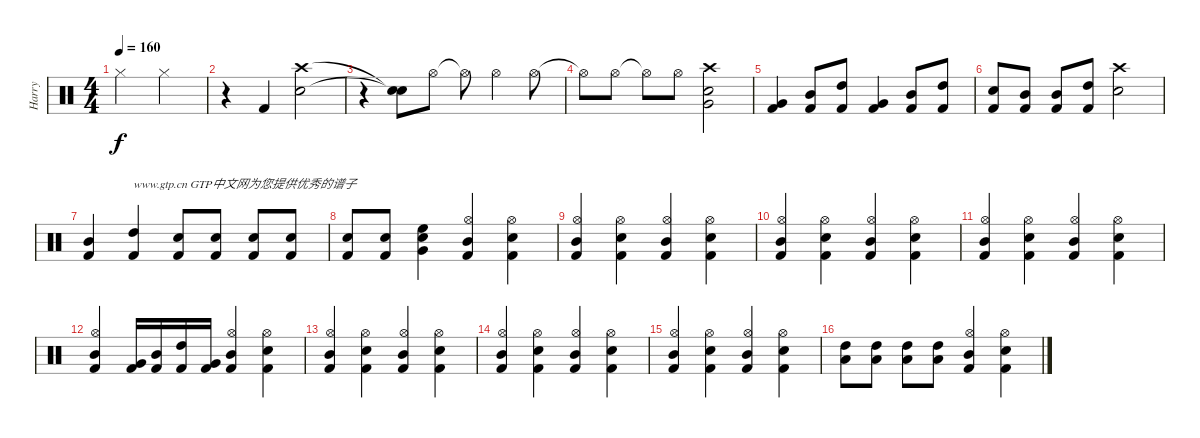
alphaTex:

\track ("Harry" "Harry") {instrument percussion}
\staff {score}
\articulation defaults
\ts (4 4)
\tempo 160
\clef neutral
\ks c "Hi-Hat (closed)".2{dy f} "Hi-Hat (closed)".2
|
r.4 "Kick (hit) 2".4 ("Crash high (hit)" "Snare (hit) 2").2 |
r.4 ("Snare (hit)"{t} "Snare (hit)"{t}).8 "Hi-Hat (open)".8 "Hi-Hat (open)"{t}.8 "Hi-Hat (open)".4 "Hi-Hat (open)".8 |
"Hi-Hat (open)"{t}.8 "Hi-Hat (open)".8 "Hi-Hat (open)"{t}.8 "Hi-Hat (open)".8 ("Very Low Tom (hit)" "Crash high (hit)" "Snare (hit) 2").2 |
("Kick (hit) 2" "Very Low Tom (hit)").4 ("Kick (hit) 2" "Mid Tom (hit)").8 ("Kick (hit) 2" "High Tom (hit)").8 ("Kick (hit) 2" "Very Low Tom (hit)").4 ("Kick (hit) 2" "Mid Tom (hit)").8 ("Kick (hit) 2" "High Tom (hit)").8 |
("Kick (hit) 2" "Snare (hit) 2").8 ("Kick (hit) 2" "Mid Tom (hit)").8 ("Kick (hit) 2" "Mid Tom (hit)").8 ("Kick (hit) 2" "High Tom (hit)").8 ("Crash high (hit)" "Snare (hit) 2").2 |
("Kick (hit) 2" "Mid Tom (hit)").4 ("Kick (hit) 2" "High Tom (hit)").4{txt "www.gtp.cn GTP中文网为您提供优秀的谱子"} ("Snare (hit) 2" "Kick (hit) 2").8 ("Snare (hit) 2" "Kick (hit) 2").8 ("Snare (hit) 2" "Kick (hit) 2").8 ("Snare (hit) 2" "Kick (hit) 2").8 |
("Snare (hit) 2" "Kick (hit) 2").8 ("Snare (hit) 2" "Kick (hit) 2").8 ("High Floor Tom (hit)" "Very Low Tom (hit)" "Snare (hit) 2").4 ("Hi-Hat (open)" "Mid Tom (hit)" "Kick (hit) 2").4 ("Hi-Hat (open)" "Kick (hit) 2" "Snare (hit) 2").4 |
("Hi-Hat (open)" "Mid Tom (hit)" "Kick (hit) 2").4 ("Hi-Hat (open)" "Kick (hit) 2" "Snare (hit) 2").4 ("Hi-Hat (open)" "Mid Tom (hit)" "Kick (hit) 2").4 ("Hi-Hat (open)" "Kick (hit) 2" "Snare (hit) 2").4 |
("Hi-Hat (open)" "Mid Tom (hit)" "Kick (hit) 2").4 ("Hi-Hat (open)" "Kick (hit) 2" "Snare (hit) 2").4 ("Hi-Hat (open)" "Mid Tom (hit)" "Kick (hit) 2").4 ("Hi-Hat (open)" "Kick (hit) 2" "Snare (hit) 2").4 |
("Hi-Hat (open)" "Mid Tom (hit)" "Kick (hit) 2").4 ("Hi-Hat (open)" "Kick (hit) 2" "Snare (hit) 2").4 ("Hi-Hat (open)" "Mid Tom (hit)" "Kick (hit) 2").4 ("Hi-Hat (open)" "Kick (hit) 2" "Snare (hit) 2").4 |
("Hi-Hat (open)" "Mid Tom (hit)" "Kick (hit) 2").4 ("Very Low Tom (hit)" "Kick (hit) 2").16 ("Mid Tom (hit)" "Kick (hit) 2").16 ("High Tom (hit)" "Kick (hit) 2").16 ("Very Low Tom (hit)" "Kick (hit) 2").16 ("Hi-Hat (open)" "Mid Tom (hit)" "Kick (hit) 2").4 ("Hi-Hat (open)" "Kick (hit) 2" "Snare (hit) 2").4 |
("Hi-Hat (open)" "Mid Tom (hit)" "Kick (hit) 2").4 ("Hi-Hat (open)" "Kick (hit) 2" "Snare (hit) 2").4 ("Hi-Hat (open)" "Mid Tom (hit)" "Kick (hit) 2").4 ("Hi-Hat (open)" "Kick (hit) 2" "Snare (hit) 2").4 |
("Hi-Hat (open)" "Mid Tom (hit)" "Kick (hit) 2").4 ("Hi-Hat (open)" "Kick (hit) 2" "Snare (hit) 2").4 ("Hi-Hat (open)" "Mid Tom (hit)" "Kick (hit) 2").4 ("Hi-Hat (open)" "Kick (hit) 2" "Snare (hit) 2").4 |
("Hi-Hat (open)" "Mid Tom (hit)" "Kick (hit) 2").4 ("Hi-Hat (open)" "Kick (hit) 2" "Snare (hit) 2").4 ("Hi-Hat (open)" "Mid Tom (hit)" "Kick (hit) 2").4 ("Hi-Hat (open)" "Kick (hit) 2" "Snare (hit) 2").4 |
("High Tom (hit)" "Low Tom (hit)").8 ("High Tom (hit)" "Low Tom (hit)").8 ("High Tom (hit)" "Low Tom (hit)").8 ("High Tom (hit)" "Low Tom (hit)").8 ("Hi-Hat (open)" "Mid Tom (hit)" "Kick (hit) 2").4 ("Hi-Hat (open)" "Kick (hit) 2" "Snare (hit) 2").4
